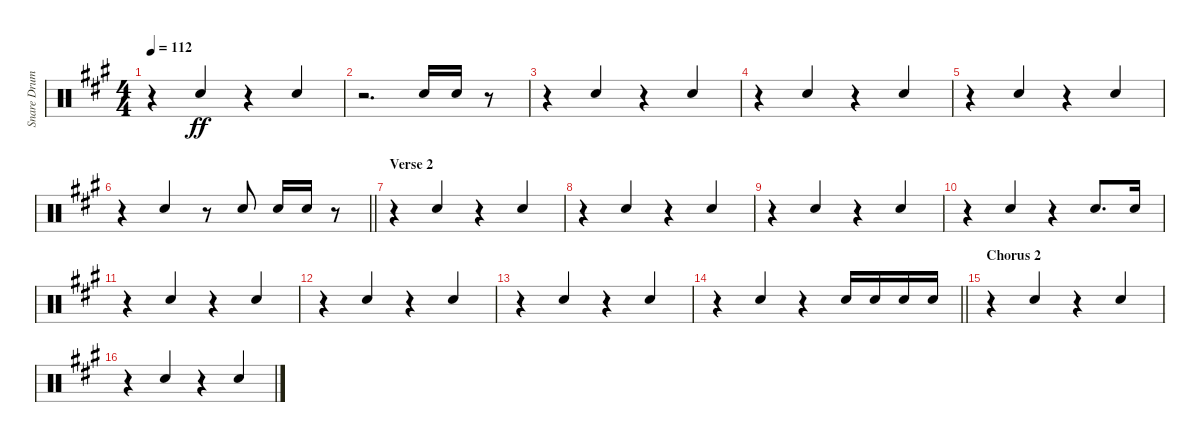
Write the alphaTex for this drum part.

\track ("Snare Drum" "Snare Drum") {instrument percussion}
\staff {score}
\articulation defaults
\ts (4 4)
\tempo 112
\clef neutral
\ks f#minor
r.4{dy ff} "Electric Snare (hit)".4{beam Up} r.4 "Electric Snare (hit)".4{beam Up} |
r.2{d} "Electric Snare (hit)".16{beam Up} "Electric Snare (hit)".16{beam Up} r.8{beam Up} |
r.4 "Electric Snare (hit)".4{beam Up} r.4 "Electric Snare (hit)".4{beam Up} |
r.4 "Electric Snare (hit)".4{beam Up} r.4 "Electric Snare (hit)".4{beam Up} |
r.4 "Electric Snare (hit)".4{beam Up} r.4 "Electric Snare (hit)".4{beam Up} |
\barLineRight lightlight
r.4 "Electric Snare (hit)".4{beam Up} r.8 "Electric Snare (hit)".8{beam Up} "Electric Snare (hit)".16{beam Up} "Electric Snare (hit)".16{beam Up} r.8 |
\section ("" "Verse 2")
r.4 "Electric Snare (hit)".4{beam Up} r.4 "Electric Snare (hit)".4{beam Up} |
r.4 "Electric Snare (hit)".4{beam Up} r.4 "Electric Snare (hit)".4{beam Up} |
r.4 "Electric Snare (hit)".4{beam Up} r.4 "Electric Snare (hit)".4{beam Up} |
r.4 "Electric Snare (hit)".4{beam Up} r.4 "Electric Snare (hit)".8{d beam Up} "Electric Snare (hit)".16{beam Up} |
r.4 "Electric Snare (hit)".4{beam Up} r.4 "Electric Snare (hit)".4{beam Up} |
r.4 "Electric Snare (hit)".4{beam Up} r.4 "Electric Snare (hit)".4{beam Up} |
r.4 "Electric Snare (hit)".4{beam Up} r.4 "Electric Snare (hit)".4{beam Up} |
\barLineRight lightlight
r.4 "Electric Snare (hit)".4{beam Up} r.4 "Electric Snare (hit)".16{beam Up} "Electric Snare (hit)".16{beam Up} "Electric Snare (hit)".16{beam Up} "Electric Snare (hit)".16{beam Up} |
\section ("" "Chorus 2")
r.4 "Electric Snare (hit)".4{beam Up} r.4 "Electric Snare (hit)".4{beam Up} |
r.4 "Electric Snare (hit)".4{beam Up} r.4 "Electric Snare (hit)".4{beam Up}
